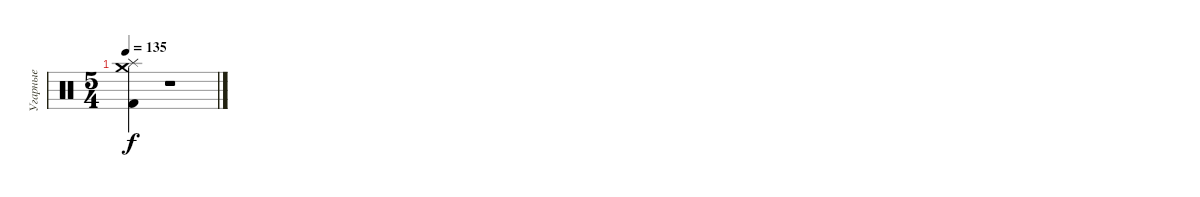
\track ("Угарные" "Угарные") {instrument percussion}
\staff {score}
\articulation defaults
\ts (5 4)
\tempo 135
\clef neutral
\ks c
("Kick (hit) 2" "Splash (hit)" "Crash medium (hit)").4{dy f} r.1
